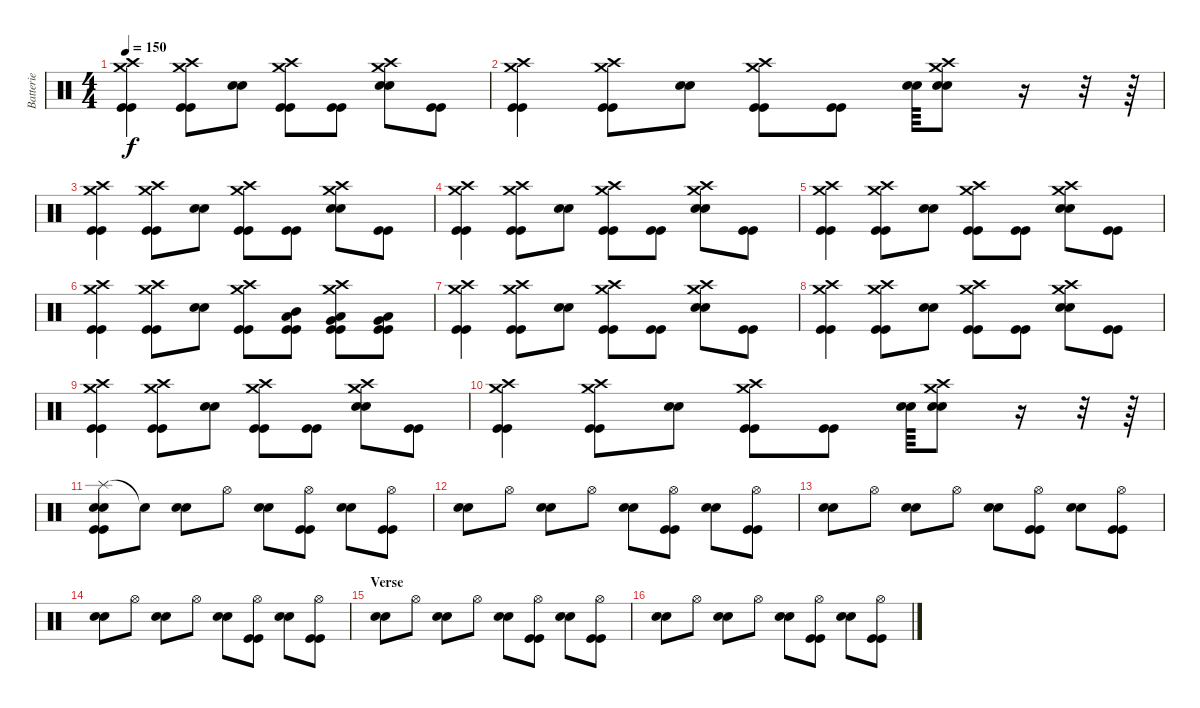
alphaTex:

\track ("Batterie" "Batterie") {instrument percussion}
\staff {score}
\articulation defaults
\ts (4 4)
\tempo 150
\clef neutral
\ks c
("Crash high (hit)" "Crash medium (hit)" "Kick (hit)" "Kick (hit)").4{dy f} ("Crash high (hit)" "Crash medium (hit)" "Kick (hit)" "Kick (hit)").8 ("Electric Snare (hit)" "Electric Snare (hit)").8 ("Crash high (hit)" "Crash medium (hit)" "Kick (hit)" "Kick (hit)").8 ("Kick (hit)" "Kick (hit)").8 ("Crash high (hit)" "Crash medium (hit)" "Electric Snare (hit)" "Electric Snare (hit)").8 ("Kick (hit)" "Kick (hit)").8 |
("Crash high (hit)" "Crash medium (hit)" "Kick (hit)" "Kick (hit)").4 ("Crash high (hit)" "Crash medium (hit)" "Kick (hit)" "Kick (hit)").8 ("Electric Snare (hit)" "Electric Snare (hit)").8 ("Crash high (hit)" "Crash medium (hit)" "Kick (hit)" "Kick (hit)").8 ("Kick (hit)" "Kick (hit)").8 ("Electric Snare (hit)" "Electric Snare (hit)").64 ("Crash high (hit)" "Crash medium (hit)" "Electric Snare (hit)" "Electric Snare (hit)").8 r.16 r.32 r.64 |
("Crash high (hit)" "Crash medium (hit)" "Kick (hit)" "Kick (hit)").4 ("Crash high (hit)" "Crash medium (hit)" "Kick (hit)" "Kick (hit)").8 ("Electric Snare (hit)" "Electric Snare (hit)").8 ("Crash high (hit)" "Crash medium (hit)" "Kick (hit)" "Kick (hit)").8 ("Kick (hit)" "Kick (hit)").8 ("Crash high (hit)" "Crash medium (hit)" "Electric Snare (hit)" "Electric Snare (hit)").8 ("Kick (hit)" "Kick (hit)").8 |
("Crash high (hit)" "Crash medium (hit)" "Kick (hit)" "Kick (hit)").4 ("Crash high (hit)" "Crash medium (hit)" "Kick (hit)" "Kick (hit)").8 ("Electric Snare (hit)" "Electric Snare (hit)").8 ("Crash high (hit)" "Crash medium (hit)" "Kick (hit)" "Kick (hit)").8 ("Kick (hit)" "Kick (hit)").8 ("Crash high (hit)" "Crash medium (hit)" "Electric Snare (hit)" "Electric Snare (hit)").8 ("Kick (hit)" "Kick (hit)").8 |
("Crash high (hit)" "Crash medium (hit)" "Kick (hit)" "Kick (hit)").4 ("Crash high (hit)" "Crash medium (hit)" "Kick (hit)" "Kick (hit)").8 ("Electric Snare (hit)" "Electric Snare (hit)").8 ("Crash high (hit)" "Crash medium (hit)" "Kick (hit)" "Kick (hit)").8 ("Kick (hit)" "Kick (hit)").8 ("Crash high (hit)" "Crash medium (hit)" "Electric Snare (hit)" "Electric Snare (hit)").8 ("Kick (hit)" "Kick (hit)").8 |
("Crash high (hit)" "Crash medium (hit)" "Kick (hit)" "Kick (hit)").4 ("Crash high (hit)" "Crash medium (hit)" "Kick (hit)" "Kick (hit)").8 ("Electric Snare (hit)" "Electric Snare (hit)").8 ("Crash high (hit)" "Crash medium (hit)" "Kick (hit)" "Kick (hit)").8 ("Mid Tom (hit)" "Low Floor Tom (hit)" "Kick (hit)" "Kick (hit)").8 ("Crash high (hit)" "Crash medium (hit)" "Very Low Tom (hit)" "Low Floor Tom (hit)" "Kick (hit)" "Kick (hit)").8 ("Very Low Tom (hit)" "Low Floor Tom (hit)" "Kick (hit)" "Kick (hit)").8 |
("Crash high (hit)" "Crash medium (hit)" "Kick (hit)" "Kick (hit)").4 ("Crash high (hit)" "Crash medium (hit)" "Kick (hit)" "Kick (hit)").8 ("Electric Snare (hit)" "Electric Snare (hit)").8 ("Crash high (hit)" "Crash medium (hit)" "Kick (hit)" "Kick (hit)").8 ("Kick (hit)" "Kick (hit)").8 ("Crash high (hit)" "Crash medium (hit)" "Electric Snare (hit)" "Electric Snare (hit)").8 ("Kick (hit)" "Kick (hit)").8 |
("Crash high (hit)" "Crash medium (hit)" "Kick (hit)" "Kick (hit)").4 ("Crash high (hit)" "Crash medium (hit)" "Kick (hit)" "Kick (hit)").8 ("Electric Snare (hit)" "Electric Snare (hit)").8 ("Crash high (hit)" "Crash medium (hit)" "Kick (hit)" "Kick (hit)").8 ("Kick (hit)" "Kick (hit)").8 ("Crash high (hit)" "Crash medium (hit)" "Electric Snare (hit)" "Electric Snare (hit)").8 ("Kick (hit)" "Kick (hit)").8 |
("Crash high (hit)" "Crash medium (hit)" "Kick (hit)" "Kick (hit)").4 ("Crash high (hit)" "Crash medium (hit)" "Kick (hit)" "Kick (hit)").8 ("Electric Snare (hit)" "Electric Snare (hit)").8 ("Crash high (hit)" "Crash medium (hit)" "Kick (hit)" "Kick (hit)").8 ("Kick (hit)" "Kick (hit)").8 ("Crash high (hit)" "Crash medium (hit)" "Electric Snare (hit)" "Electric Snare (hit)").8 ("Kick (hit)" "Kick (hit)").8 |
("Crash high (hit)" "Crash medium (hit)" "Kick (hit)" "Kick (hit)").4 ("Crash high (hit)" "Crash medium (hit)" "Kick (hit)" "Kick (hit)").8 ("Electric Snare (hit)" "Electric Snare (hit)").8 ("Crash high (hit)" "Crash medium (hit)" "Kick (hit)" "Kick (hit)").8 ("Kick (hit)" "Kick (hit)").8 ("Electric Snare (hit)" "Electric Snare (hit)").64 ("Crash high (hit)" "Crash medium (hit)" "Electric Snare (hit)" "Electric Snare (hit)").8 r.16 r.32 r.64 |
("Splash (hit)" "Electric Snare (hit)" "Electric Snare (hit)" "Kick (hit)" "Kick (hit)").8 "Snare (hit)"{t}.8 ("Electric Snare (hit)" "Electric Snare (hit)").8 "Hi-Hat (open)".8 ("Electric Snare (hit)" "Electric Snare (hit)").8 ("Hi-Hat (open)" "Kick (hit)" "Kick (hit)").8 ("Electric Snare (hit)" "Electric Snare (hit)").8 ("Hi-Hat (open)" "Kick (hit)" "Kick (hit)").8 |
("Electric Snare (hit)" "Electric Snare (hit)").8 "Hi-Hat (open)".8 ("Electric Snare (hit)" "Electric Snare (hit)").8 "Hi-Hat (open)".8 ("Electric Snare (hit)" "Electric Snare (hit)").8 ("Hi-Hat (open)" "Kick (hit)" "Kick (hit)").8 ("Electric Snare (hit)" "Electric Snare (hit)").8 ("Hi-Hat (open)" "Kick (hit)" "Kick (hit)").8 |
("Electric Snare (hit)" "Electric Snare (hit)").8 "Hi-Hat (open)".8 ("Electric Snare (hit)" "Electric Snare (hit)").8 "Hi-Hat (open)".8 ("Electric Snare (hit)" "Electric Snare (hit)").8 ("Hi-Hat (open)" "Kick (hit)" "Kick (hit)").8 ("Electric Snare (hit)" "Electric Snare (hit)").8 ("Hi-Hat (open)" "Kick (hit)" "Kick (hit)").8 |
("Electric Snare (hit)" "Electric Snare (hit)").8 "Hi-Hat (open)".8 ("Electric Snare (hit)" "Electric Snare (hit)").8 "Hi-Hat (open)".8 ("Electric Snare (hit)" "Electric Snare (hit)").8 ("Hi-Hat (open)" "Kick (hit)" "Kick (hit)").8 ("Electric Snare (hit)" "Electric Snare (hit)").8 ("Hi-Hat (open)" "Kick (hit)" "Kick (hit)").8 |
\section ("" "Verse")
("Electric Snare (hit)" "Electric Snare (hit)").8 "Hi-Hat (open)".8 ("Electric Snare (hit)" "Electric Snare (hit)").8 "Hi-Hat (open)".8 ("Electric Snare (hit)" "Electric Snare (hit)").8 ("Hi-Hat (open)" "Kick (hit)" "Kick (hit)").8 ("Electric Snare (hit)" "Electric Snare (hit)").8 ("Hi-Hat (open)" "Kick (hit)" "Kick (hit)").8 |
("Electric Snare (hit)" "Electric Snare (hit)").8 "Hi-Hat (open)".8 ("Electric Snare (hit)" "Electric Snare (hit)").8 "Hi-Hat (open)".8 ("Electric Snare (hit)" "Electric Snare (hit)").8 ("Hi-Hat (open)" "Kick (hit)" "Kick (hit)").8 ("Electric Snare (hit)" "Electric Snare (hit)").8 ("Hi-Hat (open)" "Kick (hit)" "Kick (hit)").8
